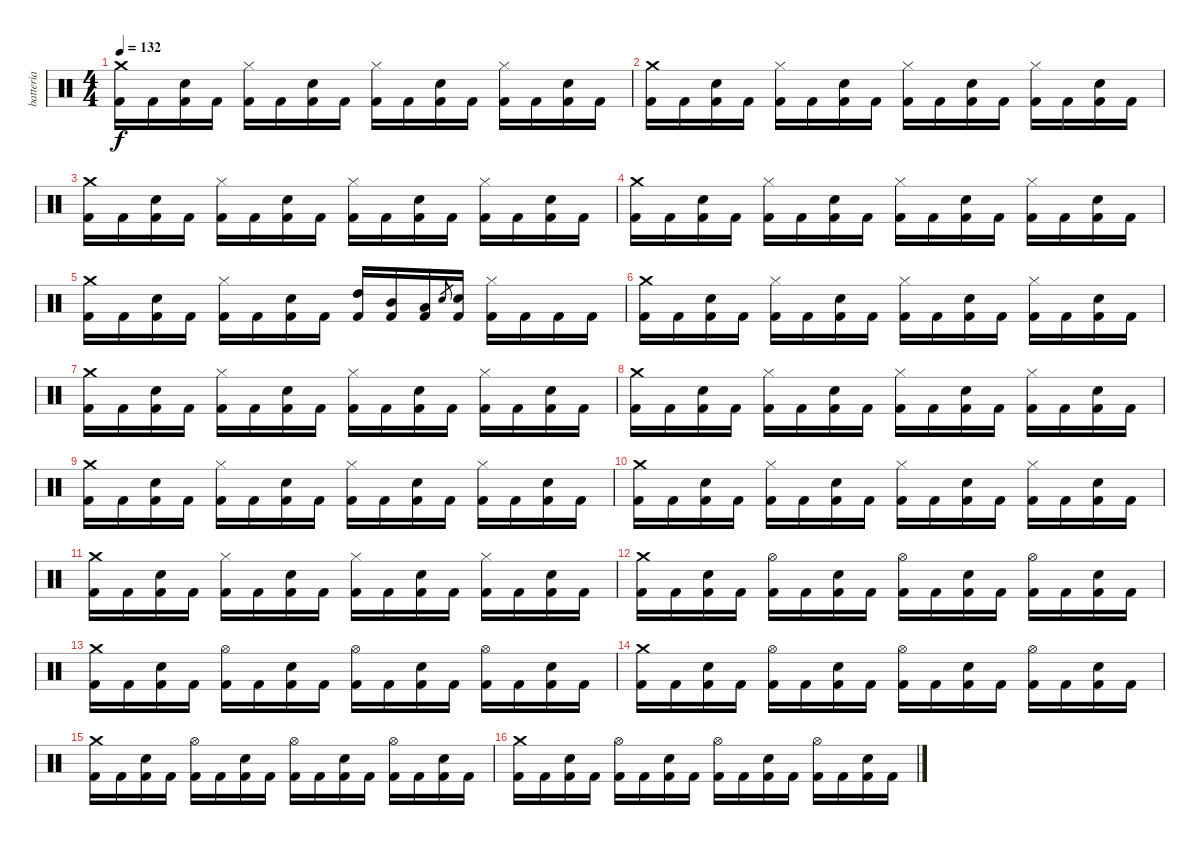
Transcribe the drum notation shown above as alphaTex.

\track ("batteria" "batteria") {instrument percussion}
\staff {score}
\articulation defaults
\ts (4 4)
\tempo 132
\clef neutral
\ks c
("Kick (hit) 2" "Crash medium (hit)").16{dy f} "Kick (hit) 2".16 ("Kick (hit) 2" "Snare (hit) 2").16 "Kick (hit) 2".16 ("Kick (hit) 2" "Hi-Hat (closed)").16 "Kick (hit) 2".16 ("Kick (hit) 2" "Snare (hit) 2").16 "Kick (hit) 2".16 ("Kick (hit) 2" "Hi-Hat (closed)").16 "Kick (hit) 2".16 ("Kick (hit) 2" "Snare (hit) 2").16 "Kick (hit) 2".16 ("Kick (hit) 2" "Hi-Hat (closed)").16 "Kick (hit) 2".16 ("Kick (hit) 2" "Snare (hit) 2").16 "Kick (hit) 2".16 |
("Kick (hit) 2" "Crash medium (hit)").16 "Kick (hit) 2".16 ("Kick (hit) 2" "Snare (hit) 2").16 "Kick (hit) 2".16 ("Kick (hit) 2" "Hi-Hat (closed)").16 "Kick (hit) 2".16 ("Kick (hit) 2" "Snare (hit) 2").16 "Kick (hit) 2".16 ("Kick (hit) 2" "Hi-Hat (closed)").16 "Kick (hit) 2".16 ("Kick (hit) 2" "Snare (hit) 2").16 "Kick (hit) 2".16 ("Kick (hit) 2" "Hi-Hat (closed)").16 "Kick (hit) 2".16 ("Kick (hit) 2" "Snare (hit) 2").16 "Kick (hit) 2".16 |
("Kick (hit) 2" "Crash medium (hit)").16 "Kick (hit) 2".16 ("Kick (hit) 2" "Snare (hit) 2").16 "Kick (hit) 2".16 ("Kick (hit) 2" "Hi-Hat (closed)").16 "Kick (hit) 2".16 ("Kick (hit) 2" "Snare (hit) 2").16 "Kick (hit) 2".16 ("Kick (hit) 2" "Hi-Hat (closed)").16 "Kick (hit) 2".16 ("Kick (hit) 2" "Snare (hit) 2").16 "Kick (hit) 2".16 ("Kick (hit) 2" "Hi-Hat (closed)").16 "Kick (hit) 2".16 ("Kick (hit) 2" "Snare (hit) 2").16 "Kick (hit) 2".16 |
("Kick (hit) 2" "Crash medium (hit)").16 "Kick (hit) 2".16 ("Kick (hit) 2" "Snare (hit) 2").16 "Kick (hit) 2".16 ("Kick (hit) 2" "Hi-Hat (closed)").16 "Kick (hit) 2".16 ("Kick (hit) 2" "Snare (hit) 2").16 "Kick (hit) 2".16 ("Kick (hit) 2" "Hi-Hat (closed)").16 "Kick (hit) 2".16 ("Kick (hit) 2" "Snare (hit) 2").16 "Kick (hit) 2".16 ("Kick (hit) 2" "Hi-Hat (closed)").16 "Kick (hit) 2".16 ("Kick (hit) 2" "Snare (hit) 2").16 "Kick (hit) 2".16 |
("Kick (hit) 2" "Crash medium (hit)").16 "Kick (hit) 2".16 ("Kick (hit) 2" "Snare (hit) 2").16 "Kick (hit) 2".16 ("Kick (hit) 2" "Hi-Hat (closed)").16 "Kick (hit) 2".16 ("Kick (hit) 2" "Snare (hit) 2").16 "Kick (hit) 2".16 ("Kick (hit) 2" "High Tom (hit)").16 ("Kick (hit) 2" "Mid Tom (hit)").16 ("Kick (hit) 2" "Low Tom (hit)").16 "Snare (hit) 2".8{gr} ("Kick (hit) 2" "Snare (hit) 2").16 ("Kick (hit) 2" "Hi-Hat (closed)").16 "Kick (hit) 2".16 "Kick (hit) 2".16 "Kick (hit) 2".16 |
("Kick (hit) 2" "Crash medium (hit)").16 "Kick (hit) 2".16 ("Kick (hit) 2" "Snare (hit) 2").16 "Kick (hit) 2".16 ("Kick (hit) 2" "Hi-Hat (closed)").16 "Kick (hit) 2".16 ("Kick (hit) 2" "Snare (hit) 2").16 "Kick (hit) 2".16 ("Kick (hit) 2" "Hi-Hat (closed)").16 "Kick (hit) 2".16 ("Kick (hit) 2" "Snare (hit) 2").16 "Kick (hit) 2".16 ("Kick (hit) 2" "Hi-Hat (closed)").16 "Kick (hit) 2".16 ("Kick (hit) 2" "Snare (hit) 2").16 "Kick (hit) 2".16 |
("Kick (hit) 2" "Crash medium (hit)").16 "Kick (hit) 2".16 ("Kick (hit) 2" "Snare (hit) 2").16 "Kick (hit) 2".16 ("Kick (hit) 2" "Hi-Hat (closed)").16 "Kick (hit) 2".16 ("Kick (hit) 2" "Snare (hit) 2").16 "Kick (hit) 2".16 ("Kick (hit) 2" "Hi-Hat (closed)").16 "Kick (hit) 2".16 ("Kick (hit) 2" "Snare (hit) 2").16 "Kick (hit) 2".16 ("Kick (hit) 2" "Hi-Hat (closed)").16 "Kick (hit) 2".16 ("Kick (hit) 2" "Snare (hit) 2").16 "Kick (hit) 2".16 |
("Kick (hit) 2" "Crash medium (hit)").16 "Kick (hit) 2".16 ("Kick (hit) 2" "Snare (hit) 2").16 "Kick (hit) 2".16 ("Kick (hit) 2" "Hi-Hat (closed)").16 "Kick (hit) 2".16 ("Kick (hit) 2" "Snare (hit) 2").16 "Kick (hit) 2".16 ("Kick (hit) 2" "Hi-Hat (closed)").16 "Kick (hit) 2".16 ("Kick (hit) 2" "Snare (hit) 2").16 "Kick (hit) 2".16 ("Kick (hit) 2" "Hi-Hat (closed)").16 "Kick (hit) 2".16 ("Kick (hit) 2" "Snare (hit) 2").16 "Kick (hit) 2".16 |
("Kick (hit) 2" "Crash medium (hit)").16 "Kick (hit) 2".16 ("Kick (hit) 2" "Snare (hit) 2").16 "Kick (hit) 2".16 ("Kick (hit) 2" "Hi-Hat (closed)").16 "Kick (hit) 2".16 ("Kick (hit) 2" "Snare (hit) 2").16 "Kick (hit) 2".16 ("Kick (hit) 2" "Hi-Hat (closed)").16 "Kick (hit) 2".16 ("Kick (hit) 2" "Snare (hit) 2").16 "Kick (hit) 2".16 ("Kick (hit) 2" "Hi-Hat (closed)").16 "Kick (hit) 2".16 ("Kick (hit) 2" "Snare (hit) 2").16 "Kick (hit) 2".16 |
("Kick (hit) 2" "Crash medium (hit)").16 "Kick (hit) 2".16 ("Kick (hit) 2" "Snare (hit) 2").16 "Kick (hit) 2".16 ("Kick (hit) 2" "Hi-Hat (closed)").16 "Kick (hit) 2".16 ("Kick (hit) 2" "Snare (hit) 2").16 "Kick (hit) 2".16 ("Kick (hit) 2" "Hi-Hat (closed)").16 "Kick (hit) 2".16 ("Kick (hit) 2" "Snare (hit) 2").16 "Kick (hit) 2".16 ("Kick (hit) 2" "Hi-Hat (closed)").16 "Kick (hit) 2".16 ("Kick (hit) 2" "Snare (hit) 2").16 "Kick (hit) 2".16 |
("Kick (hit) 2" "Crash medium (hit)").16 "Kick (hit) 2".16 ("Kick (hit) 2" "Snare (hit) 2").16 "Kick (hit) 2".16 ("Kick (hit) 2" "Hi-Hat (closed)").16 "Kick (hit) 2".16 ("Kick (hit) 2" "Snare (hit) 2").16 "Kick (hit) 2".16 ("Kick (hit) 2" "Hi-Hat (closed)").16 "Kick (hit) 2".16 ("Kick (hit) 2" "Snare (hit) 2").16 "Kick (hit) 2".16 ("Kick (hit) 2" "Hi-Hat (closed)").16 "Kick (hit) 2".16 ("Kick (hit) 2" "Snare (hit) 2").16 "Kick (hit) 2".16 |
("Kick (hit) 2" "Crash medium (hit)").16 "Kick (hit) 2".16 ("Kick (hit) 2" "Snare (hit) 2").16 "Kick (hit) 2".16 ("Kick (hit) 2" "Hi-Hat (open)").16 "Kick (hit) 2".16 ("Kick (hit) 2" "Snare (hit) 2").16 "Kick (hit) 2".16 ("Kick (hit) 2" "Hi-Hat (open)").16 "Kick (hit) 2".16 ("Kick (hit) 2" "Snare (hit) 2").16 "Kick (hit) 2".16 ("Kick (hit) 2" "Hi-Hat (open)").16 "Kick (hit) 2".16 ("Kick (hit) 2" "Snare (hit) 2").16 "Kick (hit) 2".16 |
("Kick (hit) 2" "Crash medium (hit)").16 "Kick (hit) 2".16 ("Kick (hit) 2" "Snare (hit) 2").16 "Kick (hit) 2".16 ("Kick (hit) 2" "Hi-Hat (open)").16 "Kick (hit) 2".16 ("Kick (hit) 2" "Snare (hit) 2").16 "Kick (hit) 2".16 ("Kick (hit) 2" "Hi-Hat (open)").16 "Kick (hit) 2".16 ("Kick (hit) 2" "Snare (hit) 2").16 "Kick (hit) 2".16 ("Kick (hit) 2" "Hi-Hat (open)").16 "Kick (hit) 2".16 ("Kick (hit) 2" "Snare (hit) 2").16 "Kick (hit) 2".16 |
("Kick (hit) 2" "Crash medium (hit)").16 "Kick (hit) 2".16 ("Kick (hit) 2" "Snare (hit) 2").16 "Kick (hit) 2".16 ("Kick (hit) 2" "Hi-Hat (open)").16 "Kick (hit) 2".16 ("Kick (hit) 2" "Snare (hit) 2").16 "Kick (hit) 2".16 ("Kick (hit) 2" "Hi-Hat (open)").16 "Kick (hit) 2".16 ("Kick (hit) 2" "Snare (hit) 2").16 "Kick (hit) 2".16 ("Kick (hit) 2" "Hi-Hat (open)").16 "Kick (hit) 2".16 ("Kick (hit) 2" "Snare (hit) 2").16 "Kick (hit) 2".16 |
("Kick (hit) 2" "Crash medium (hit)").16 "Kick (hit) 2".16 ("Kick (hit) 2" "Snare (hit) 2").16 "Kick (hit) 2".16 ("Kick (hit) 2" "Hi-Hat (open)").16 "Kick (hit) 2".16 ("Kick (hit) 2" "Snare (hit) 2").16 "Kick (hit) 2".16 ("Kick (hit) 2" "Hi-Hat (open)").16 "Kick (hit) 2".16 ("Kick (hit) 2" "Snare (hit) 2").16 "Kick (hit) 2".16 ("Kick (hit) 2" "Hi-Hat (open)").16 "Kick (hit) 2".16 ("Kick (hit) 2" "Snare (hit) 2").16 "Kick (hit) 2".16 |
("Kick (hit) 2" "Crash medium (hit)").16 "Kick (hit) 2".16 ("Kick (hit) 2" "Snare (hit) 2").16 "Kick (hit) 2".16 ("Kick (hit) 2" "Hi-Hat (open)").16 "Kick (hit) 2".16 ("Kick (hit) 2" "Snare (hit) 2").16 "Kick (hit) 2".16 ("Kick (hit) 2" "Hi-Hat (open)").16 "Kick (hit) 2".16 ("Kick (hit) 2" "Snare (hit) 2").16 "Kick (hit) 2".16 ("Kick (hit) 2" "Hi-Hat (open)").16 "Kick (hit) 2".16 ("Kick (hit) 2" "Snare (hit) 2").16 "Kick (hit) 2".16
